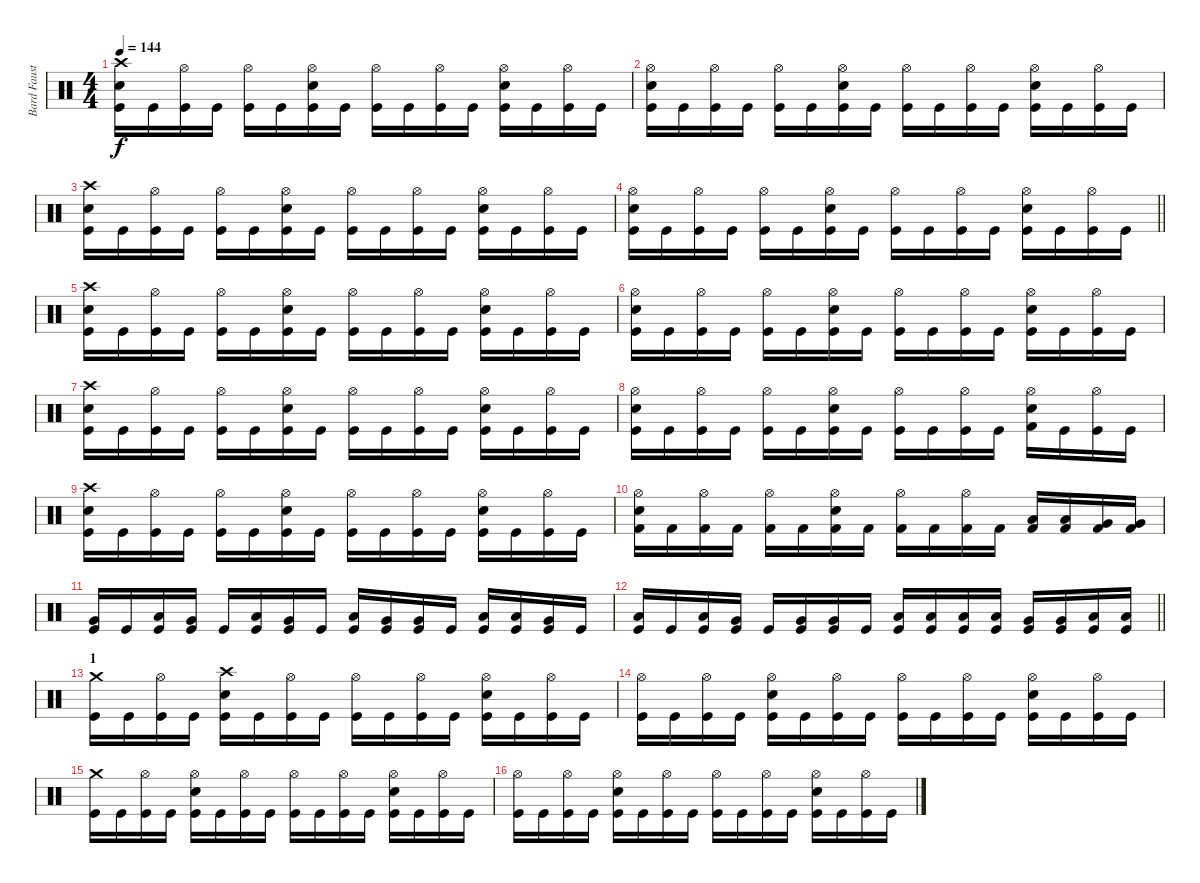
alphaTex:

\track ("Bard Faust" "Bard Faust") {instrument percussion}
\staff {score}
\articulation defaults
\ts (4 4)
\tempo 144
\clef neutral
\ks c
("Crash high (hit)" "Snare (hit) 2" "Kick (hit)").16{dy f} "Kick (hit)".16 ("Hi-Hat (open)" "Kick (hit)").16 "Kick (hit)".16 ("Hi-Hat (open)" "Kick (hit)").16 "Kick (hit)".16 ("Hi-Hat (open)" "Snare (hit) 2" "Kick (hit)").16 "Kick (hit)".16 ("Hi-Hat (open)" "Kick (hit)").16 "Kick (hit)".16 ("Hi-Hat (open)" "Kick (hit)").16 "Kick (hit)".16 ("Hi-Hat (open)" "Snare (hit) 2" "Kick (hit)").16 "Kick (hit)".16 ("Hi-Hat (open)" "Kick (hit)").16 "Kick (hit)".16 |
("Hi-Hat (open)" "Snare (hit) 2" "Kick (hit)").16 "Kick (hit)".16 ("Hi-Hat (open)" "Kick (hit)").16 "Kick (hit)".16 ("Hi-Hat (open)" "Kick (hit)").16 "Kick (hit)".16 ("Hi-Hat (open)" "Snare (hit) 2" "Kick (hit)").16 "Kick (hit)".16 ("Hi-Hat (open)" "Kick (hit)").16 "Kick (hit)".16 ("Hi-Hat (open)" "Kick (hit)").16 "Kick (hit)".16 ("Hi-Hat (open)" "Snare (hit) 2" "Kick (hit)").16 "Kick (hit)".16 ("Hi-Hat (open)" "Kick (hit)").16 "Kick (hit)".16 |
("Crash high (hit)" "Snare (hit) 2" "Kick (hit)").16 "Kick (hit)".16 ("Hi-Hat (open)" "Kick (hit)").16 "Kick (hit)".16 ("Hi-Hat (open)" "Kick (hit)").16 "Kick (hit)".16 ("Hi-Hat (open)" "Snare (hit) 2" "Kick (hit)").16 "Kick (hit)".16 ("Hi-Hat (open)" "Kick (hit)").16 "Kick (hit)".16 ("Hi-Hat (open)" "Kick (hit)").16 "Kick (hit)".16 ("Hi-Hat (open)" "Snare (hit) 2" "Kick (hit)").16 "Kick (hit)".16 ("Hi-Hat (open)" "Kick (hit)").16 "Kick (hit)".16 |
\barLineRight lightlight
("Hi-Hat (open)" "Snare (hit) 2" "Kick (hit)").16 "Kick (hit)".16 ("Hi-Hat (open)" "Kick (hit)").16 "Kick (hit)".16 ("Hi-Hat (open)" "Kick (hit)").16 "Kick (hit)".16 ("Hi-Hat (open)" "Snare (hit) 2" "Kick (hit)").16 "Kick (hit)".16 ("Hi-Hat (open)" "Kick (hit)").16 "Kick (hit)".16 ("Hi-Hat (open)" "Kick (hit)").16 "Kick (hit)".16 ("Hi-Hat (open)" "Snare (hit) 2" "Kick (hit)").16 "Kick (hit)".16 ("Hi-Hat (open)" "Kick (hit)").16 "Kick (hit)".16 |
\section ("" "")
("Crash high (hit)" "Snare (hit) 2" "Kick (hit)").16 "Kick (hit)".16 ("Hi-Hat (open)" "Kick (hit)").16 "Kick (hit)".16 ("Hi-Hat (open)" "Kick (hit)").16 "Kick (hit)".16 ("Hi-Hat (open)" "Snare (hit) 2" "Kick (hit)").16 "Kick (hit)".16 ("Hi-Hat (open)" "Kick (hit)").16 "Kick (hit)".16 ("Hi-Hat (open)" "Kick (hit)").16 "Kick (hit)".16 ("Hi-Hat (open)" "Snare (hit) 2" "Kick (hit)").16 "Kick (hit)".16 ("Hi-Hat (open)" "Kick (hit)").16 "Kick (hit)".16 |
("Hi-Hat (open)" "Snare (hit) 2" "Kick (hit)").16 "Kick (hit)".16 ("Hi-Hat (open)" "Kick (hit)").16 "Kick (hit)".16 ("Hi-Hat (open)" "Kick (hit)").16 "Kick (hit)".16 ("Hi-Hat (open)" "Snare (hit) 2" "Kick (hit)").16 "Kick (hit)".16 ("Hi-Hat (open)" "Kick (hit)").16 "Kick (hit)".16 ("Hi-Hat (open)" "Kick (hit)").16 "Kick (hit)".16 ("Hi-Hat (open)" "Snare (hit) 2" "Kick (hit)").16 "Kick (hit)".16 ("Hi-Hat (open)" "Kick (hit)").16 "Kick (hit)".16 |
("Crash high (hit)" "Snare (hit) 2" "Kick (hit)").16 "Kick (hit)".16 ("Hi-Hat (open)" "Kick (hit)").16 "Kick (hit)".16 ("Hi-Hat (open)" "Kick (hit)").16 "Kick (hit)".16 ("Hi-Hat (open)" "Snare (hit) 2" "Kick (hit)").16 "Kick (hit)".16 ("Hi-Hat (open)" "Kick (hit)").16 "Kick (hit)".16 ("Hi-Hat (open)" "Kick (hit)").16 "Kick (hit)".16 ("Hi-Hat (open)" "Snare (hit) 2" "Kick (hit)").16 "Kick (hit)".16 ("Hi-Hat (open)" "Kick (hit)").16 "Kick (hit)".16 |
("Hi-Hat (open)" "Snare (hit) 2" "Kick (hit)").16 "Kick (hit)".16 ("Hi-Hat (open)" "Kick (hit)").16 "Kick (hit)".16 ("Hi-Hat (open)" "Kick (hit)").16 "Kick (hit)".16 ("Hi-Hat (open)" "Snare (hit) 2" "Kick (hit)").16 "Kick (hit)".16 ("Hi-Hat (open)" "Kick (hit)").16 "Kick (hit)".16 ("Hi-Hat (open)" "Kick (hit)").16 "Kick (hit)".16 ("Hi-Hat (open)" "Snare (hit) 2" "Kick (hit) 2").16 "Kick (hit)".16 ("Hi-Hat (open)" "Kick (hit)").16 "Kick (hit)".16 |
("Crash high (hit)" "Snare (hit) 2" "Kick (hit)").16 "Kick (hit)".16 ("Hi-Hat (open)" "Kick (hit)").16 "Kick (hit)".16 ("Hi-Hat (open)" "Kick (hit)").16 "Kick (hit)".16 ("Hi-Hat (open)" "Snare (hit) 2" "Kick (hit)").16 "Kick (hit)".16 ("Hi-Hat (open)" "Kick (hit)").16 "Kick (hit)".16 ("Hi-Hat (open)" "Kick (hit)").16 "Kick (hit)".16 ("Hi-Hat (open)" "Snare (hit) 2" "Kick (hit)").16 "Kick (hit)".16 ("Hi-Hat (open)" "Kick (hit)").16 "Kick (hit)".16 |
("Hi-Hat (open)" "Snare (hit) 2" "Kick (hit) 2").16 "Kick (hit) 2".16 ("Hi-Hat (open)" "Kick (hit) 2").16 "Kick (hit) 2".16 ("Hi-Hat (open)" "Kick (hit) 2").16 "Kick (hit) 2".16 ("Hi-Hat (open)" "Snare (hit) 2" "Kick (hit) 2").16 "Kick (hit) 2".16 ("Hi-Hat (open)" "Kick (hit) 2").16 "Kick (hit) 2".16 ("Hi-Hat (open)" "Kick (hit) 2").16 "Kick (hit) 2".16 ("Low Tom (hit)" "Kick (hit) 2").16 ("Low Tom (hit)" "Kick (hit) 2").16 ("Very Low Tom (hit)" "Kick (hit) 2").16 ("Very Low Tom (hit)" "Kick (hit) 2").16 |
("Very Low Tom (hit)" "Kick (hit)").16 "Kick (hit)".16 ("Low Floor Tom (hit)" "Kick (hit)").16 ("Very Low Tom (hit)" "Kick (hit)").16 "Kick (hit)".16 ("Low Floor Tom (hit)" "Kick (hit)").16 ("Very Low Tom (hit)" "Kick (hit)").16 "Kick (hit)".16 ("Low Floor Tom (hit)" "Kick (hit)").16 ("Very Low Tom (hit)" "Kick (hit)").16 ("Very Low Tom (hit)" "Kick (hit)").16 "Kick (hit)".16 ("Low Floor Tom (hit)" "Kick (hit)").16 ("Low Floor Tom (hit)" "Kick (hit)").16 ("Very Low Tom (hit)" "Kick (hit)").16 "Kick (hit)".16 |
\barLineRight lightlight
("Low Floor Tom (hit)" "Kick (hit)").16 "Kick (hit)".16 ("Low Floor Tom (hit)" "Kick (hit)").16 ("Very Low Tom (hit)" "Kick (hit)").16 "Kick (hit)".16 ("Very Low Tom (hit)" "Kick (hit)").16 ("Very Low Tom (hit)" "Kick (hit)").16 "Kick (hit)".16 ("Low Tom (hit)" "Kick (hit)").16 ("Low Tom (hit)" "Kick (hit)").16 ("Low Tom (hit)" "Kick (hit)").16 ("Low Tom (hit)" "Kick (hit)").16 ("Very Low Tom (hit)" "Kick (hit)").16 ("Very Low Tom (hit)" "Kick (hit)").16 ("Low Floor Tom (hit)" "Kick (hit)").16 ("Low Floor Tom (hit)" "Kick (hit)").16 |
\section ("" "1")
("Crash medium (hit)" "Kick (hit)").16 "Kick (hit)".16 ("Hi-Hat (open)" "Kick (hit)").16 "Kick (hit)".16 ("Crash high (hit)" "Snare (hit) 2" "Kick (hit)").16 "Kick (hit)".16 ("Hi-Hat (open)" "Kick (hit)").16 "Kick (hit)".16 ("Hi-Hat (open)" "Kick (hit)").16 "Kick (hit)".16 ("Hi-Hat (open)" "Kick (hit)").16 "Kick (hit)".16 ("Hi-Hat (open)" "Snare (hit) 2" "Kick (hit)").16 "Kick (hit)".16 ("Hi-Hat (open)" "Kick (hit)").16 "Kick (hit)".16 |
("Hi-Hat (open)" "Kick (hit)").16 "Kick (hit)".16 ("Hi-Hat (open)" "Kick (hit)").16 "Kick (hit)".16 ("Hi-Hat (open)" "Snare (hit) 2" "Kick (hit)").16 "Kick (hit)".16 ("Hi-Hat (open)" "Kick (hit)").16 "Kick (hit)".16 ("Hi-Hat (open)" "Kick (hit)").16 "Kick (hit)".16 ("Hi-Hat (open)" "Kick (hit)").16 "Kick (hit)".16 ("Hi-Hat (open)" "Snare (hit) 2" "Kick (hit)").16 "Kick (hit)".16 ("Hi-Hat (open)" "Kick (hit)").16 "Kick (hit)".16 |
("Crash medium (hit)" "Kick (hit)").16 "Kick (hit)".16 ("Hi-Hat (open)" "Kick (hit)").16 "Kick (hit)".16 ("Hi-Hat (open)" "Snare (hit) 2" "Kick (hit)").16 "Kick (hit)".16 ("Hi-Hat (open)" "Kick (hit)").16 "Kick (hit)".16 ("Hi-Hat (open)" "Kick (hit)").16 "Kick (hit)".16 ("Hi-Hat (open)" "Kick (hit)").16 "Kick (hit)".16 ("Hi-Hat (open)" "Snare (hit) 2" "Kick (hit)").16 "Kick (hit)".16 ("Hi-Hat (open)" "Kick (hit)").16 "Kick (hit)".16 |
("Hi-Hat (open)" "Kick (hit)").16 "Kick (hit)".16 ("Hi-Hat (open)" "Kick (hit)").16 "Kick (hit)".16 ("Hi-Hat (open)" "Snare (hit) 2" "Kick (hit)").16 "Kick (hit)".16 ("Hi-Hat (open)" "Kick (hit)").16 "Kick (hit)".16 ("Hi-Hat (open)" "Kick (hit)").16 "Kick (hit)".16 ("Hi-Hat (open)" "Kick (hit)").16 "Kick (hit)".16 ("Hi-Hat (open)" "Snare (hit) 2" "Kick (hit)").16 "Kick (hit)".16 ("Hi-Hat (open)" "Kick (hit)").16 "Kick (hit)".16
